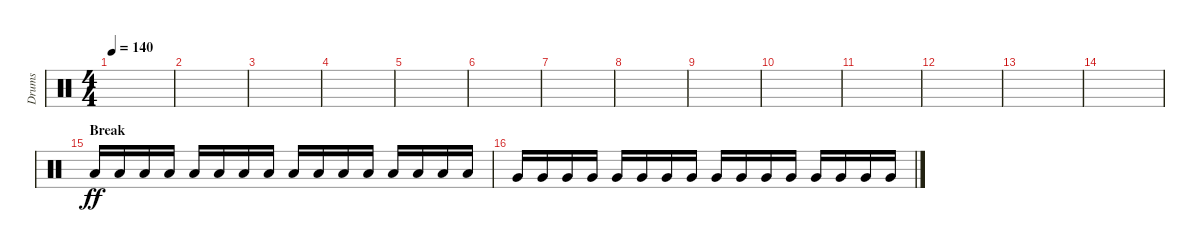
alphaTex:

\track ("Drums" "Drums") {instrument percussion}
\staff {score}
\articulation defaults
\ts (4 4)
\tempo 140
\clef neutral
\ks c
|
|
|
|
|
|
|
|
|
|
|
|
|
|
\section ("" "Break")
"Low Floor Tom (hit)".16{dy ff} "Low Floor Tom (hit)".16 "Low Floor Tom (hit)".16 "Low Floor Tom (hit)".16 "Low Floor Tom (hit)".16 "Low Floor Tom (hit)".16 "Low Floor Tom (hit)".16 "Low Floor Tom (hit)".16 "Low Floor Tom (hit)".16 "Low Floor Tom (hit)".16 "Low Floor Tom (hit)".16 "Low Floor Tom (hit)".16 "Low Floor Tom (hit)".16 "Low Floor Tom (hit)".16 "Low Floor Tom (hit)".16 "Low Floor Tom (hit)".16 |
"Very Low Tom (hit)".16 "Very Low Tom (hit)".16 "Very Low Tom (hit)".16 "Very Low Tom (hit)".16 "Very Low Tom (hit)".16 "Very Low Tom (hit)".16 "Very Low Tom (hit)".16 "Very Low Tom (hit)".16 "Very Low Tom (hit)".16 "Very Low Tom (hit)".16 "Very Low Tom (hit)".16 "Very Low Tom (hit)".16 "Very Low Tom (hit)".16 "Very Low Tom (hit)".16 "Very Low Tom (hit)".16 "Very Low Tom (hit)".16
